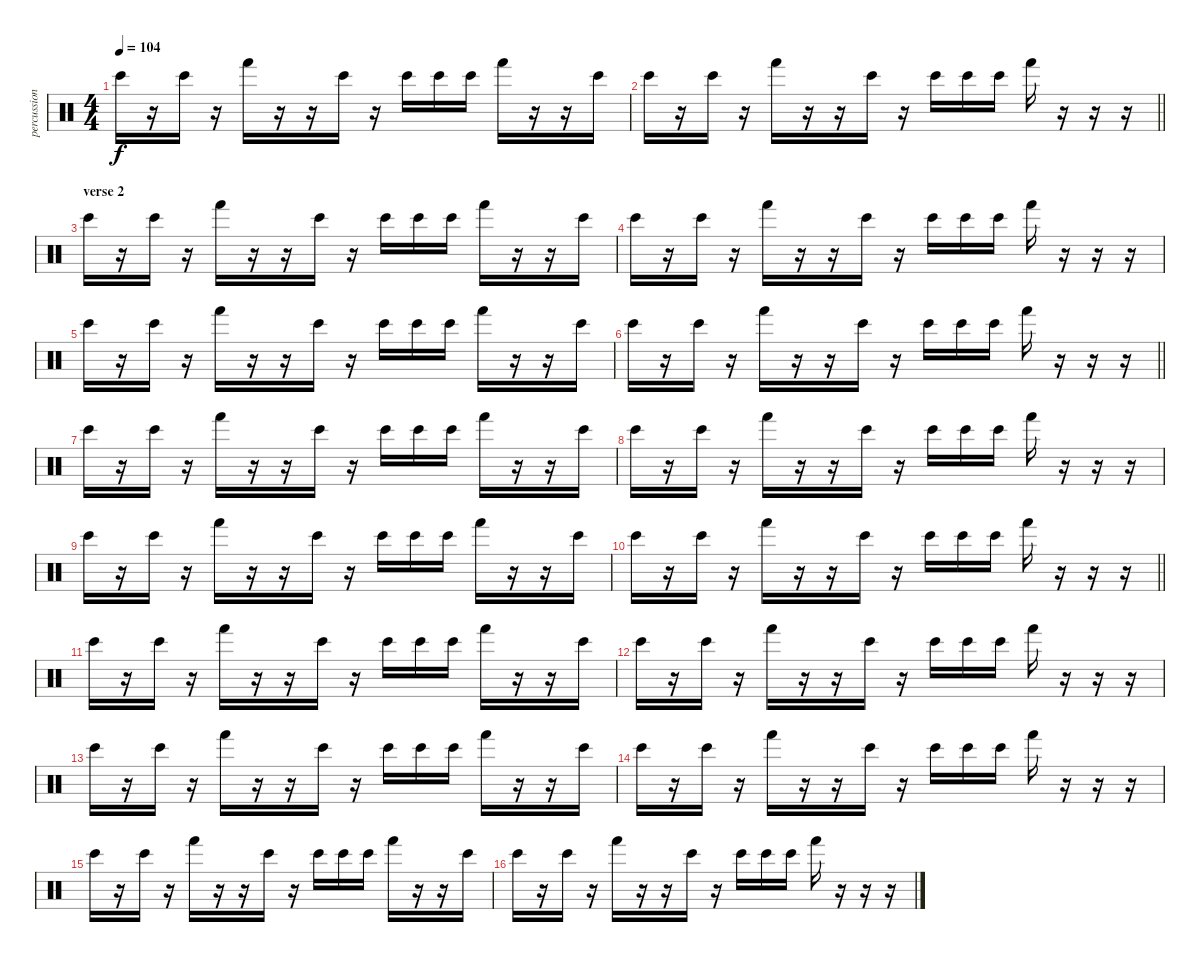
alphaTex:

\track ("percussion" "percussion") {instrument percussion}
\staff {score}
\articulation defaults
\ts (4 4)
\tempo 104
\clef neutral
\ks c "Bongo High (hit)".16{dy f}
r.16 "Bongo High (hit)".16 r.16 "Hand (hit)".16 r.16 r.16 "Bongo High (hit)".16 r.16 "Bongo High (hit)".16 "Bongo High (hit)".16 "Bongo High (hit)".16 "Hand (hit)".16 r.16 r.16 "Bongo High (hit)".16 |
\barLineRight lightlight "Bongo High (hit)".16
r.16 "Bongo High (hit)".16 r.16 "Hand (hit)".16 r.16 r.16 "Bongo High (hit)".16 r.16 "Bongo High (hit)".16 "Bongo High (hit)".16 "Bongo High (hit)".16 "Hand (hit)".16 r.16 r.16 r.16 |
\section ("" "verse 2")
"Bongo High (hit)".16 r.16 "Bongo High (hit)".16 r.16 "Hand (hit)".16 r.16 r.16 "Bongo High (hit)".16 r.16 "Bongo High (hit)".16 "Bongo High (hit)".16 "Bongo High (hit)".16 "Hand (hit)".16 r.16 r.16 "Bongo High (hit)".16 |
"Bongo High (hit)".16 r.16 "Bongo High (hit)".16 r.16 "Hand (hit)".16 r.16 r.16 "Bongo High (hit)".16 r.16 "Bongo High (hit)".16 "Bongo High (hit)".16 "Bongo High (hit)".16 "Hand (hit)".16 r.16 r.16 r.16 |
"Bongo High (hit)".16 r.16 "Bongo High (hit)".16 r.16 "Hand (hit)".16 r.16 r.16 "Bongo High (hit)".16 r.16 "Bongo High (hit)".16 "Bongo High (hit)".16 "Bongo High (hit)".16 "Hand (hit)".16 r.16 r.16 "Bongo High (hit)".16 |
\barLineRight lightlight "Bongo High (hit)".16
r.16 "Bongo High (hit)".16 r.16 "Hand (hit)".16 r.16 r.16 "Bongo High (hit)".16 r.16 "Bongo High (hit)".16 "Bongo High (hit)".16 "Bongo High (hit)".16 "Hand (hit)".16 r.16 r.16 r.16 |
"Bongo High (hit)".16 r.16 "Bongo High (hit)".16 r.16 "Hand (hit)".16 r.16 r.16 "Bongo High (hit)".16 r.16 "Bongo High (hit)".16 "Bongo High (hit)".16 "Bongo High (hit)".16 "Hand (hit)".16 r.16 r.16 "Bongo High (hit)".16 |
"Bongo High (hit)".16 r.16 "Bongo High (hit)".16 r.16 "Hand (hit)".16 r.16 r.16 "Bongo High (hit)".16 r.16 "Bongo High (hit)".16 "Bongo High (hit)".16 "Bongo High (hit)".16 "Hand (hit)".16 r.16 r.16 r.16 |
"Bongo High (hit)".16 r.16 "Bongo High (hit)".16 r.16 "Hand (hit)".16 r.16 r.16 "Bongo High (hit)".16 r.16 "Bongo High (hit)".16 "Bongo High (hit)".16 "Bongo High (hit)".16 "Hand (hit)".16 r.16 r.16 "Bongo High (hit)".16 |
\barLineRight lightlight "Bongo High (hit)".16
r.16 "Bongo High (hit)".16 r.16 "Hand (hit)".16 r.16 r.16 "Bongo High (hit)".16 r.16 "Bongo High (hit)".16 "Bongo High (hit)".16 "Bongo High (hit)".16 "Hand (hit)".16 r.16 r.16 r.16 |
"Bongo High (hit)".16 r.16 "Bongo High (hit)".16 r.16 "Hand (hit)".16 r.16 r.16 "Bongo High (hit)".16 r.16 "Bongo High (hit)".16 "Bongo High (hit)".16 "Bongo High (hit)".16 "Hand (hit)".16 r.16 r.16 "Bongo High (hit)".16 |
"Bongo High (hit)".16 r.16 "Bongo High (hit)".16 r.16 "Hand (hit)".16 r.16 r.16 "Bongo High (hit)".16 r.16 "Bongo High (hit)".16 "Bongo High (hit)".16 "Bongo High (hit)".16 "Hand (hit)".16 r.16 r.16 r.16 |
"Bongo High (hit)".16 r.16 "Bongo High (hit)".16 r.16 "Hand (hit)".16 r.16 r.16 "Bongo High (hit)".16 r.16 "Bongo High (hit)".16 "Bongo High (hit)".16 "Bongo High (hit)".16 "Hand (hit)".16 r.16 r.16 "Bongo High (hit)".16 |
"Bongo High (hit)".16 r.16 "Bongo High (hit)".16 r.16 "Hand (hit)".16 r.16 r.16 "Bongo High (hit)".16 r.16 "Bongo High (hit)".16 "Bongo High (hit)".16 "Bongo High (hit)".16 "Hand (hit)".16 r.16 r.16 r.16 |
"Bongo High (hit)".16 r.16 "Bongo High (hit)".16 r.16 "Hand (hit)".16 r.16 r.16 "Bongo High (hit)".16 r.16 "Bongo High (hit)".16 "Bongo High (hit)".16 "Bongo High (hit)".16 "Hand (hit)".16 r.16 r.16 "Bongo High (hit)".16 |
"Bongo High (hit)".16 r.16 "Bongo High (hit)".16 r.16 "Hand (hit)".16 r.16 r.16 "Bongo High (hit)".16 r.16 "Bongo High (hit)".16 "Bongo High (hit)".16 "Bongo High (hit)".16 "Hand (hit)".16 r.16 r.16 r.16
